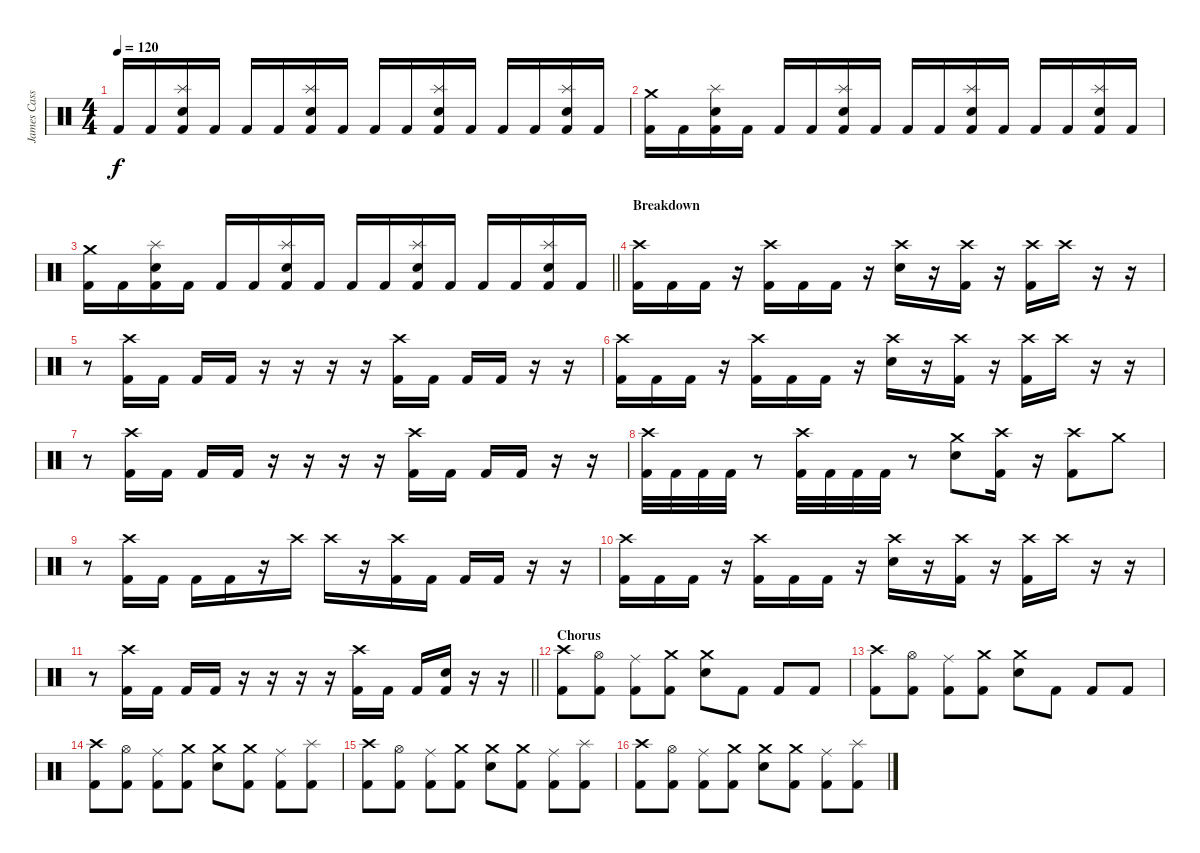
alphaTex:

\track ("James Cassels" "James Cass") {instrument percussion}
\staff {score}
\articulation defaults
\ts (4 4)
\tempo 120
\clef neutral
\ks c "Kick (hit) 2".16{dy f} "Kick (hit) 2".16
("Splash (hit)" "Electric Snare (hit)" "Kick (hit) 2").16 "Kick (hit) 2".16 "Kick (hit) 2".16 "Kick (hit) 2".16 ("Splash (hit)" "Electric Snare (hit)" "Kick (hit) 2").16 "Kick (hit) 2".16 "Kick (hit) 2".16 "Kick (hit) 2".16 ("Splash (hit)" "Electric Snare (hit)" "Kick (hit) 2").16 "Kick (hit) 2".16 "Kick (hit) 2".16 "Kick (hit) 2".16 ("Splash (hit)" "Electric Snare (hit)" "Kick (hit) 2").16 "Kick (hit) 2".16 |
("Crash medium (hit)" "Kick (hit) 2").16 "Kick (hit) 2".16 ("Splash (hit)" "Electric Snare (hit)" "Kick (hit) 2").16 "Kick (hit) 2".16 "Kick (hit) 2".16 "Kick (hit) 2".16 ("Splash (hit)" "Electric Snare (hit)" "Kick (hit) 2").16 "Kick (hit) 2".16 "Kick (hit) 2".16 "Kick (hit) 2".16 ("Splash (hit)" "Electric Snare (hit)" "Kick (hit) 2").16 "Kick (hit) 2".16 "Kick (hit) 2".16 "Kick (hit) 2".16 ("Splash (hit)" "Electric Snare (hit)" "Kick (hit) 2").16 "Kick (hit) 2".16 |
\barLineRight lightlight
("Crash medium (hit)" "Kick (hit) 2").16 "Kick (hit) 2".16 ("Splash (hit)" "Electric Snare (hit)" "Kick (hit) 2").16 "Kick (hit) 2".16 "Kick (hit) 2".16 "Kick (hit) 2".16 ("Splash (hit)" "Electric Snare (hit)" "Kick (hit) 2").16 "Kick (hit) 2".16 "Kick (hit) 2".16 "Kick (hit) 2".16 ("Splash (hit)" "Electric Snare (hit)" "Kick (hit) 2").16 "Kick (hit) 2".16 "Kick (hit) 2".16 "Kick (hit) 2".16 ("Splash (hit)" "Electric Snare (hit)" "Kick (hit) 2").16 "Kick (hit) 2".16 |
\section ("" "Breakdown")
("Crash high (hit)" "Kick (hit) 2").16 "Kick (hit) 2".16 "Kick (hit) 2".16 r.16 ("Crash high (hit)" "Kick (hit) 2").16 "Kick (hit) 2".16 "Kick (hit) 2".16 r.16 ("Crash high (hit)" "Electric Snare (hit)").16 r.16 ("Crash high (hit)" "Kick (hit) 2").16 r.16 ("Crash high (hit)" "Kick (hit) 2").16 "Crash high (hit)".16 r.16 r.16 |
r.8 ("Crash high (hit)" "Kick (hit) 2").16 "Kick (hit) 2".16 "Kick (hit) 2".16 "Kick (hit) 2".16 r.16 r.16 r.16 r.16 ("Crash high (hit)" "Kick (hit) 2").16 "Kick (hit) 2".16 "Kick (hit) 2".16 "Kick (hit) 2".16 r.16 r.16 |
("Crash high (hit)" "Kick (hit) 2").16 "Kick (hit) 2".16 "Kick (hit) 2".16 r.16 ("Crash high (hit)" "Kick (hit) 2").16 "Kick (hit) 2".16 "Kick (hit) 2".16 r.16 ("Crash high (hit)" "Electric Snare (hit)").16 r.16 ("Crash high (hit)" "Kick (hit) 2").16 r.16 ("Crash high (hit)" "Kick (hit) 2").16 "Crash high (hit)".16 r.16 r.16 |
r.8 ("Crash high (hit)" "Kick (hit) 2").16 "Kick (hit) 2".16 "Kick (hit) 2".16 "Kick (hit) 2".16 r.16 r.16 r.16 r.16 ("Crash high (hit)" "Kick (hit) 2").16 "Kick (hit) 2".16 "Kick (hit) 2".16 "Kick (hit) 2".16 r.16 r.16 |
("Kick (hit) 2" "Crash high (hit)").32 "Kick (hit) 2".32 "Kick (hit) 2".32 "Kick (hit) 2".32 r.8 ("Kick (hit) 2" "Crash high (hit)").32 "Kick (hit) 2".32 "Kick (hit) 2".32 "Kick (hit) 2".32 r.8 ("Electric Snare (hit)" "Crash medium (hit)").8 ("Crash high (hit)" "Kick (hit) 2").16 r.16 ("Crash high (hit)" "Kick (hit) 2").8 "Crash medium (hit)".8 |
r.8 ("Crash high (hit)" "Kick (hit) 2").16 "Kick (hit) 2".16 "Kick (hit) 2".16 "Kick (hit) 2".16 r.16 "Crash high (hit)".16 "Crash high (hit)".16 r.16 ("Crash high (hit)" "Kick (hit) 2").16 "Kick (hit) 2".16 "Kick (hit) 2".16 "Kick (hit) 2".16 r.16 r.16 |
("Crash high (hit)" "Kick (hit) 2").16 "Kick (hit) 2".16 "Kick (hit) 2".16 r.16 ("Crash high (hit)" "Kick (hit) 2").16 "Kick (hit) 2".16 "Kick (hit) 2".16 r.16 ("Crash high (hit)" "Electric Snare (hit)").16 r.16 ("Crash high (hit)" "Kick (hit) 2").16 r.16 ("Crash high (hit)" "Kick (hit) 2").16 "Crash high (hit)".16 r.16 r.16 |
\barLineRight lightlight
r.8 ("Crash high (hit)" "Kick (hit) 2").16 "Kick (hit) 2".16 "Kick (hit) 2".16 "Kick (hit) 2".16 r.16 r.16 r.16 r.16 ("Crash high (hit)" "Kick (hit) 2").16 "Kick (hit) 2".16 "Kick (hit) 2".16 ("Electric Snare (hit)" "Kick (hit) 2").16 r.16 r.16 |
\section ("" "Chorus")
("Crash high (hit)" "Kick (hit) 2").8 ("Hi-Hat (open)" "Kick (hit) 2").8 ("Ride (middle)" "Kick (hit) 2").8 ("Crash medium (hit)" "Kick (hit) 2").8 ("Crash medium (hit)" "Electric Snare (hit)").8 "Kick (hit) 2".8 "Kick (hit) 2".8 "Kick (hit) 2".8 |
("Crash high (hit)" "Kick (hit) 2").8 ("Hi-Hat (open)" "Kick (hit) 2").8 ("Ride (middle)" "Kick (hit) 2").8 ("Crash medium (hit)" "Kick (hit) 2").8 ("Crash medium (hit)" "Electric Snare (hit)").8 "Kick (hit) 2".8 "Kick (hit) 2".8 "Kick (hit) 2".8 |
("Crash high (hit)" "Kick (hit) 2").8 ("Hi-Hat (open)" "Kick (hit) 2").8 ("Ride (middle)" "Kick (hit) 2").8 ("Crash medium (hit)" "Kick (hit) 2").8 ("Crash medium (hit)" "Electric Snare (hit)").8 ("Crash medium (hit)" "Kick (hit) 2").8 ("Ride (middle)" "Kick (hit) 2").8 ("Splash (hit)" "Kick (hit) 2").8 |
("Crash high (hit)" "Kick (hit) 2").8 ("Hi-Hat (open)" "Kick (hit) 2").8 ("Ride (middle)" "Kick (hit) 2").8 ("Crash medium (hit)" "Kick (hit) 2").8 ("Crash medium (hit)" "Electric Snare (hit)").8 ("Crash medium (hit)" "Kick (hit) 2").8 ("Ride (middle)" "Kick (hit) 2").8 ("Splash (hit)" "Kick (hit) 2").8 |
("Crash high (hit)" "Kick (hit) 2").8 ("Hi-Hat (open)" "Kick (hit) 2").8 ("Ride (middle)" "Kick (hit) 2").8 ("Crash medium (hit)" "Kick (hit) 2").8 ("Crash medium (hit)" "Electric Snare (hit)").8 ("Crash medium (hit)" "Kick (hit) 2").8 ("Ride (middle)" "Kick (hit) 2").8 ("Splash (hit)" "Kick (hit) 2").8
